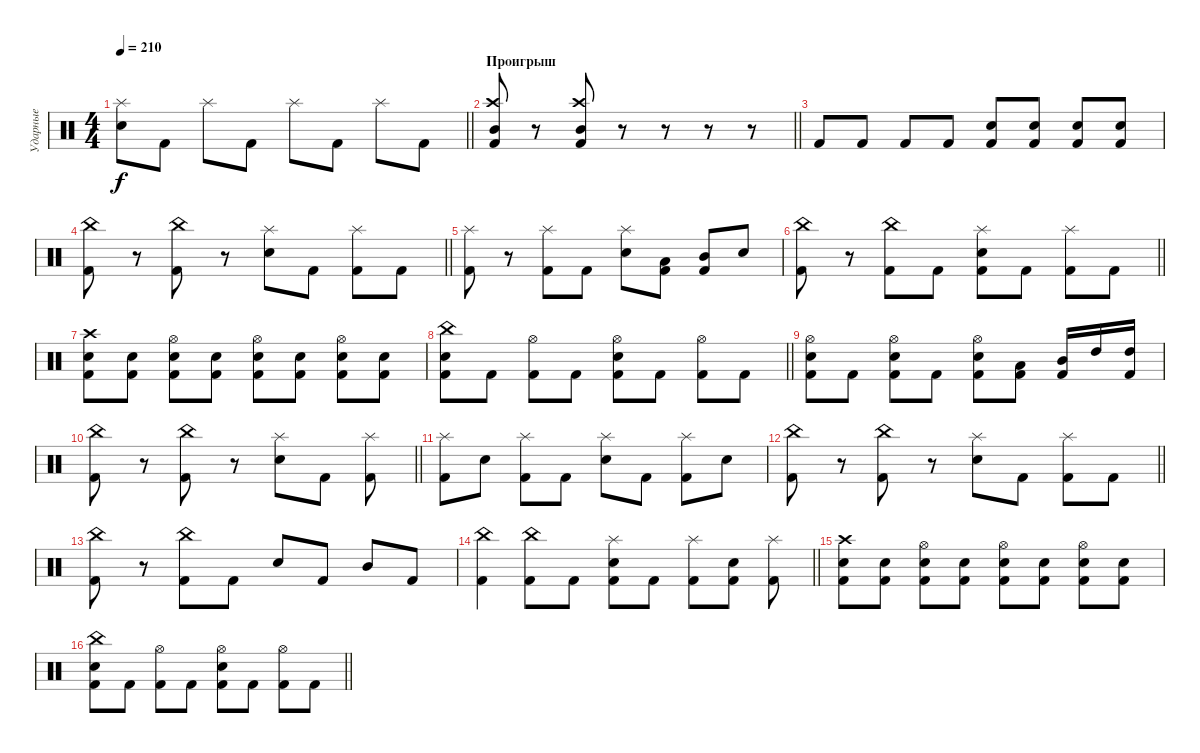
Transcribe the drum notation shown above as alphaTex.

\track ("Ударные" "Ударные") {mute instrument percussion}
\staff {score}
\articulation defaults
\ts (4 4)
\tempo 210
\clef neutral
\barLineRight lightlight
\ks c
("Splash (hit)" "Electric Snare (hit)").8{dy f} "Kick (hit) 2".8 "Splash (hit)".8 "Kick (hit) 2".8 "Splash (hit)".8 "Kick (hit) 2".8 "Splash (hit)".8 "Kick (hit) 2".8 |
\section ("" "Проигрыш")
\barLineRight lightlight
("Crash high (hit)"{pm} "Mid Tom (hit)" "Kick (hit) 2").8 r.8 ("Crash high (hit)"{pm} "Mid Tom (hit)" "Kick (hit) 2").8 r.8 r.8 r.8 r.8 |
"Kick (hit) 2".8 "Kick (hit) 2".8 "Kick (hit) 2".8 "Kick (hit) 2".8 ("Electric Snare (hit)" "Kick (hit) 2").8 ("Electric Snare (hit)" "Kick (hit) 2").8 ("Electric Snare (hit)" "Kick (hit) 2").8 ("Electric Snare (hit)" "Kick (hit) 2").8 |
\barLineRight lightlight
("China (hit)"{pm} "Kick (hit) 2").8{volume 14} r.8 ("China (hit)" "Kick (hit) 2").8 r.8 ("Splash (hit)" "Electric Snare (hit)").8{volume 13} "Kick (hit) 2".8 ("Splash (hit)" "Kick (hit) 2").8 "Kick (hit) 2".8 |
("Splash (hit)" "Kick (hit) 2").8{volume 13} r.8 ("Splash (hit)" "Kick (hit) 2").8{volume 14} "Kick (hit) 2".8 ("Splash (hit)" "Electric Snare (hit)").8 ("Low Tom (hit)" "Kick (hit) 2").8 ("Mid Tom (hit)" "Kick (hit) 2").8 "Electric Snare (hit)".8 |
\barLineRight lightlight
("China (hit)" "Kick (hit) 2").8 r.8 ("China (hit)" "Kick (hit) 2").8 "Kick (hit) 2".8 ("Splash (hit)" "Electric Snare (hit)" "Kick (hit) 2").8 "Kick (hit) 2".8 ("Splash (hit)" "Kick (hit) 2").8 "Kick (hit) 2".8 |
("Crash high (hit)" "Electric Snare (hit)" "Kick (hit) 2").8 ("Electric Snare (hit)" "Kick (hit) 2").8 ("Hi-Hat (open)" "Electric Snare (hit)" "Kick (hit) 2").8 ("Electric Snare (hit)" "Kick (hit) 2").8 ("Hi-Hat (open)" "Electric Snare (hit)" "Kick (hit) 2").8 ("Electric Snare (hit)" "Kick (hit) 2").8 ("Hi-Hat (open)" "Electric Snare (hit)" "Kick (hit) 2").8 ("Electric Snare (hit)" "Kick (hit) 2").8 |
\barLineRight lightlight
("China (hit)" "Electric Snare (hit)" "Kick (hit) 2").8{volume 14} "Kick (hit) 2".8 ("Hi-Hat (open)" "Kick (hit) 2").8 "Kick (hit) 2".8 ("Hi-Hat (open)" "Electric Snare (hit)" "Kick (hit) 2").8{volume 13} "Kick (hit) 2".8 ("Hi-Hat (open)" "Kick (hit) 2").8 "Kick (hit) 2".8 |
("Hi-Hat (open)" "Electric Snare (hit)" "Kick (hit) 2").8{volume 13} "Kick (hit) 2".8 ("Hi-Hat (open)" "Electric Snare (hit)" "Kick (hit) 2").8{volume 14} "Kick (hit) 2".8 ("Hi-Hat (open)" "Electric Snare (hit)" "Kick (hit) 2").8 ("Low Tom (hit)" "Kick (hit) 2").8 ("Mid Tom (hit)" "Kick (hit) 2").16 "High Tom (hit)".16 ("High Tom (hit)" "Kick (hit) 2").16 |
\barLineRight lightlight
("China (hit)"{pm} "Kick (hit) 2").8 r.8 ("China (hit)"{pm} "Kick (hit) 2").8 r.8 ("Splash (hit)" "Electric Snare (hit)").8 "Kick (hit) 2".8 ("Splash (hit)" "Kick (hit) 2").8 |
("Splash (hit)" "Kick (hit) 2").8 "Electric Snare (hit)".8 ("Splash (hit)" "Kick (hit) 2").8 "Kick (hit) 2".8 ("Splash (hit)" "Electric Snare (hit)").8 "Kick (hit) 2".8 ("Splash (hit)" "Kick (hit) 2").8 "Electric Snare (hit)".8 |
\barLineRight lightlight
("China (hit)"{pm} "Kick (hit) 2").8{volume 14} r.8 ("China (hit)" "Kick (hit) 2").8 r.8 ("Splash (hit)" "Electric Snare (hit)").8{volume 13} "Kick (hit) 2".8 ("Splash (hit)" "Kick (hit) 2").8 "Kick (hit) 2".8 |
("China (hit)" "Kick (hit) 2").8{volume 13} r.8 ("China (hit)"{pm} "Kick (hit) 2").8{volume 14} "Kick (hit) 2".8 "Electric Snare (hit)".8 "Kick (hit) 2".8 "Mid Tom (hit)".8 "Kick (hit) 2".8 |
\barLineRight lightlight
("China (hit)" "Kick (hit) 2").4 ("China (hit)" "Kick (hit) 2").8 "Kick (hit) 2".8 ("Splash (hit)" "Electric Snare (hit)" "Kick (hit) 2").8 "Kick (hit) 2".8 ("Splash (hit)" "Kick (hit) 2").8 ("Electric Snare (hit)" "Kick (hit) 2").8 ("Splash (hit)" "Kick (hit) 2").8 |
("Crash high (hit)" "Electric Snare (hit)" "Kick (hit) 2").8 ("Electric Snare (hit)" "Kick (hit) 2").8 ("Hi-Hat (open)" "Electric Snare (hit)" "Kick (hit) 2").8 ("Electric Snare (hit)" "Kick (hit) 2").8 ("Hi-Hat (open)" "Electric Snare (hit)" "Kick (hit) 2").8 ("Electric Snare (hit)" "Kick (hit) 2").8 ("Hi-Hat (open)" "Electric Snare (hit)" "Kick (hit) 2").8 ("Electric Snare (hit)" "Kick (hit) 2").8 |
\barLineRight lightlight
("China (hit)" "Electric Snare (hit)" "Kick (hit) 2").8{volume 14} "Kick (hit) 2".8 ("Hi-Hat (open)" "Kick (hit) 2").8 "Kick (hit) 2".8 ("Hi-Hat (open)" "Electric Snare (hit)" "Kick (hit) 2").8{volume 13} "Kick (hit) 2".8 ("Hi-Hat (open)" "Kick (hit) 2").8 "Kick (hit) 2".8
